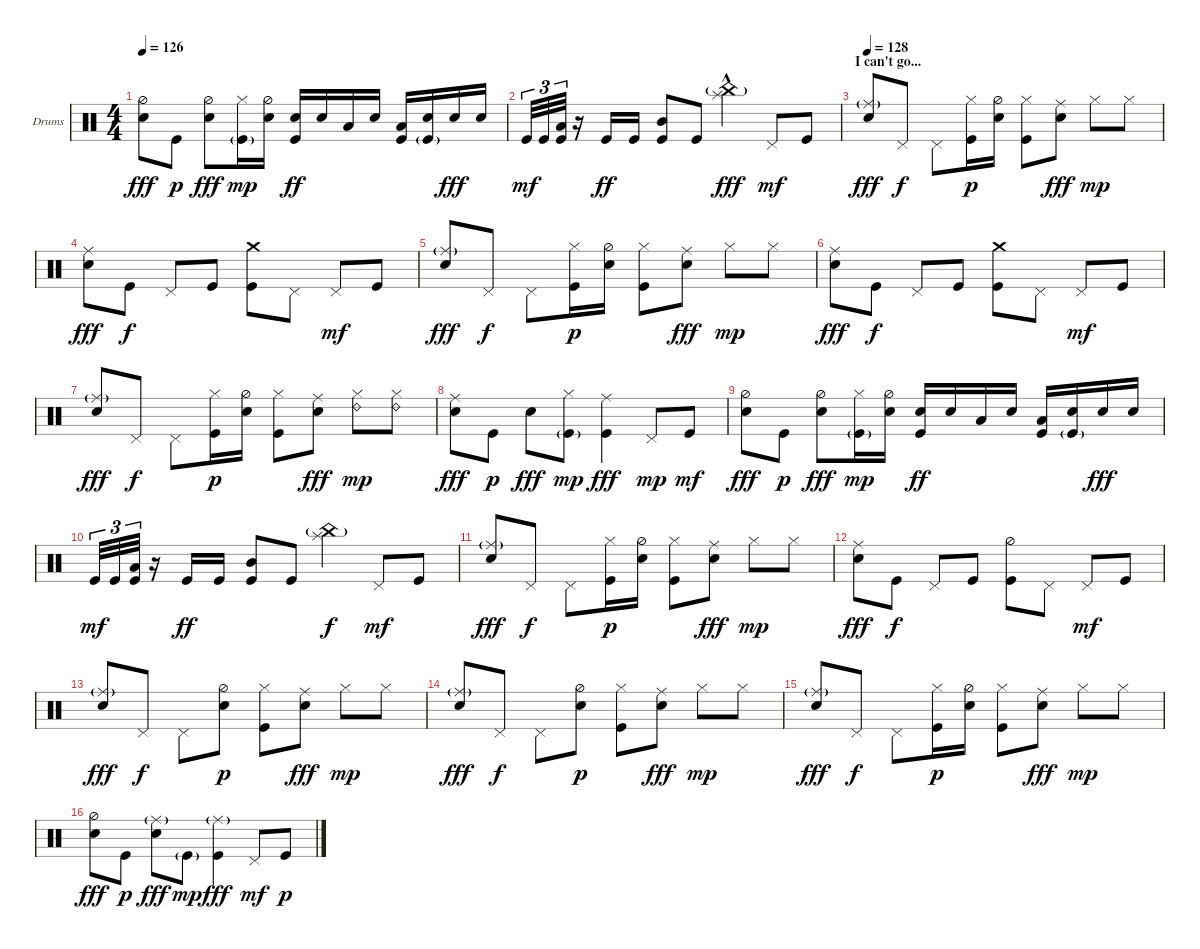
\bracketExtendMode groupsimilarinstruments
\firstSystemTrackNameOrientation horizontal
\otherSystemsTrackNameOrientation horizontal
\track ("drums - john hinch" "Drums") {instrument percussion}
\staff {score}
\articulation defaults
\ts (4 4)
\tempo 126
\clef neutral
\scale
0.333333
\ks c
("Snare (hit) 2" "Hi-Hat (half)").8{dy fff} "Kick (hit)".8{dy p} ("Hi-Hat (half)" "Snare (hit) 2").8{dy fff} ("Kick (hit)"{g} "Hi-Hat (closed)").16{dy mp} ("Snare (hit) 2" "Hi-Hat (half)").16 ("Snare (hit) 2" "Kick (hit)").16{dy ff} "Snare (hit) 2".16 "Low Tom (hit)".16 "Snare (hit) 2".16 ("Low Tom (hit)" "Kick (hit)").16 ("Snare (hit) 2" "Kick (hit)"{g}).16 "Snare (hit) 2".16{dy fff} "Snare (hit) 2".16 |
\scale
0.333333 "Kick (hit)".32{tu (3 2) dy mf} "Kick (hit)".32{tu (3 2)} ("Kick (hit)" "Low Tom (hit)").32{tu (3 2)} r.16 "Kick (hit)".16{dy ff} "Kick (hit)".16 ("Kick (hit)" "Mid Tom (hit)").8 "Kick (hit)".8 ("Splash (hit)"{hac} "China (hit)"{g}).4{dy fff} "Pedal Hi-Hat (hit)".8{dy mf} "Kick (hit)".8 |
\section ("" "I can't go...")
\tempo 128
\scale
0.333333 ("Snare (hit) 2" "Ride (middle)"{g}).8{dy fff} "Pedal Hi-Hat (hit)".8{dy f} "Pedal Hi-Hat (hit)".8 ("Kick (hit)" "Hi-Hat (closed)").16{dy p} ("Snare (hit) 2" "Hi-Hat (half)").16 ("Kick (hit)" "Hi-Hat (closed)").8 ("Snare (hit) 2" "Ride (middle)").8{dy fff} "Hi-Hat (closed)".8{dy mp} "Hi-Hat (closed)".8 |
\scale
0.333333 ("Snare (hit) 2" "Ride (middle)").8{dy fff} "Kick (hit)".8{dy f} "Pedal Hi-Hat (hit)".8 "Kick (hit)".8 ("Kick (hit)" "Crash medium (hit)").8 "Pedal Hi-Hat (hit)".8 "Pedal Hi-Hat (hit)".8{dy mf} "Kick (hit)".8 |
\scale
0.333333 ("Snare (hit) 2" "Ride (middle)"{g}).8{dy fff} "Pedal Hi-Hat (hit)".8{dy f} "Pedal Hi-Hat (hit)".8 ("Kick (hit)" "Hi-Hat (closed)").16{dy p} ("Snare (hit) 2" "Hi-Hat (half)").16 ("Kick (hit)" "Hi-Hat (closed)").8 ("Snare (hit) 2" "Ride (middle)").8{dy fff} "Hi-Hat (closed)".8{dy mp} "Hi-Hat (closed)".8 |
\scale
0.333333 ("Snare (hit) 2" "Ride (middle)").8{dy fff} "Kick (hit)".8{dy f} "Pedal Hi-Hat (hit)".8 "Kick (hit)".8 ("Kick (hit)" "Crash medium (hit)").8 "Pedal Hi-Hat (hit)".8 "Pedal Hi-Hat (hit)".8{dy mf} "Kick (hit)".8 |
\scale
0.333333 ("Snare (hit) 2" "Ride (middle)"{g}).8{dy fff} "Pedal Hi-Hat (hit)".8{dy f} "Pedal Hi-Hat (hit)".8 ("Kick (hit)" "Hi-Hat (closed)").16{dy p} ("Snare (hit) 2" "Hi-Hat (half)").16 ("Kick (hit)" "Hi-Hat (closed)").8 ("Snare (hit) 2" "Ride (middle)").8{dy fff} ("Hi-Hat (closed)" "Ride (bell) 2").8{dy mp} ("Hi-Hat (closed)" "Ride (bell) 2").8 |
\scale
0.333333 ("Snare (hit) 2" "Ride (middle)").8{dy fff} "Kick (hit)".8{dy p} "Snare (hit) 2".8{dy fff} ("Kick (hit)"{g} "Hi-Hat (closed)").8{dy mp} ("Kick (hit)" "Ride (middle)").4{dy fff} "Pedal Hi-Hat (hit)".8{dy mp} "Kick (hit)".8{dy mf} |
\scale
0.333333 ("Snare (hit) 2" "Hi-Hat (half)").8{dy fff} "Kick (hit)".8{dy p} ("Hi-Hat (half)" "Snare (hit) 2").8{dy fff} ("Kick (hit)"{g} "Hi-Hat (closed)").16{dy mp} ("Snare (hit) 2" "Hi-Hat (half)").16 ("Snare (hit) 2" "Kick (hit)").16{dy ff} "Snare (hit) 2".16 "Low Tom (hit)".16 "Snare (hit) 2".16 ("Low Tom (hit)" "Kick (hit)").16 ("Snare (hit) 2" "Kick (hit)"{g}).16 "Snare (hit) 2".16{dy fff} "Snare (hit) 2".16 |
\scale
0.333333 "Kick (hit)".32{tu (3 2) dy mf} "Kick (hit)".32{tu (3 2)} ("Kick (hit)" "Low Tom (hit)").32{tu (3 2)} r.16 "Kick (hit)".16{dy ff} "Kick (hit)".16 ("Kick (hit)" "Mid Tom (hit)").8 "Kick (hit)".8 ("Splash (hit)" "China (hit)"{g}).4{dy f} "Pedal Hi-Hat (hit)".8{dy mf} "Kick (hit)".8 |
\scale
0.333333 ("Snare (hit) 2" "Ride (middle)"{g}).8{dy fff} "Pedal Hi-Hat (hit)".8{dy f} "Pedal Hi-Hat (hit)".8 ("Kick (hit)" "Hi-Hat (closed)").16{dy p} ("Snare (hit) 2" "Hi-Hat (half)").16 ("Kick (hit)" "Hi-Hat (closed)").8 ("Snare (hit) 2" "Ride (middle)").8{dy fff} "Hi-Hat (closed)".8{dy mp} "Hi-Hat (closed)".8 |
\scale
0.333333 ("Snare (hit) 2" "Ride (middle)").8{dy fff} "Kick (hit)".8{dy f} "Pedal Hi-Hat (hit)".8 "Kick (hit)".8 ("Kick (hit)" "Hi-Hat (half)").8 "Pedal Hi-Hat (hit)".8 "Pedal Hi-Hat (hit)".8{dy mf} "Kick (hit)".8 |
\scale
0.333333 ("Snare (hit) 2" "Ride (middle)"{g}).8{dy fff} "Pedal Hi-Hat (hit)".8{dy f} "Pedal Hi-Hat (hit)".8 ("Snare (hit) 2" "Hi-Hat (half)").8{dy p} ("Kick (hit)" "Hi-Hat (closed)").8 ("Snare (hit) 2" "Ride (middle)").8{dy fff} "Hi-Hat (closed)".8{dy mp} "Hi-Hat (closed)".8 |
\scale
0.333333 ("Snare (hit) 2" "Ride (middle)"{g}).8{dy fff} "Pedal Hi-Hat (hit)".8{dy f} "Pedal Hi-Hat (hit)".8 ("Snare (hit) 2" "Hi-Hat (half)").8{dy p} ("Kick (hit)" "Hi-Hat (closed)").8 ("Snare (hit) 2" "Ride (middle)").8{dy fff} "Hi-Hat (closed)".8{dy mp} "Hi-Hat (closed)".8 |
\scale
0.333333 ("Snare (hit) 2" "Ride (middle)"{g}).8{dy fff} "Pedal Hi-Hat (hit)".8{dy f} "Pedal Hi-Hat (hit)".8 ("Kick (hit)" "Hi-Hat (closed)").16{dy p} ("Snare (hit) 2" "Hi-Hat (half)").16 ("Kick (hit)" "Hi-Hat (closed)").8 ("Snare (hit) 2" "Ride (middle)").8{dy fff} "Hi-Hat (closed)".8{dy mp} "Hi-Hat (closed)".8 |
\scale
0.333333 ("Snare (hit) 2" "Hi-Hat (half)").8{dy fff} "Kick (hit)".8{dy p} ("Snare (hit) 2" "Ride (middle)"{g}).8{dy fff} "Kick (hit)"{g}.8{dy mp} ("Kick (hit)" "Ride (middle)"{g}).4{dy fff} "Pedal Hi-Hat (hit)".8{dy mf} "Kick (hit)".8{dy p}
